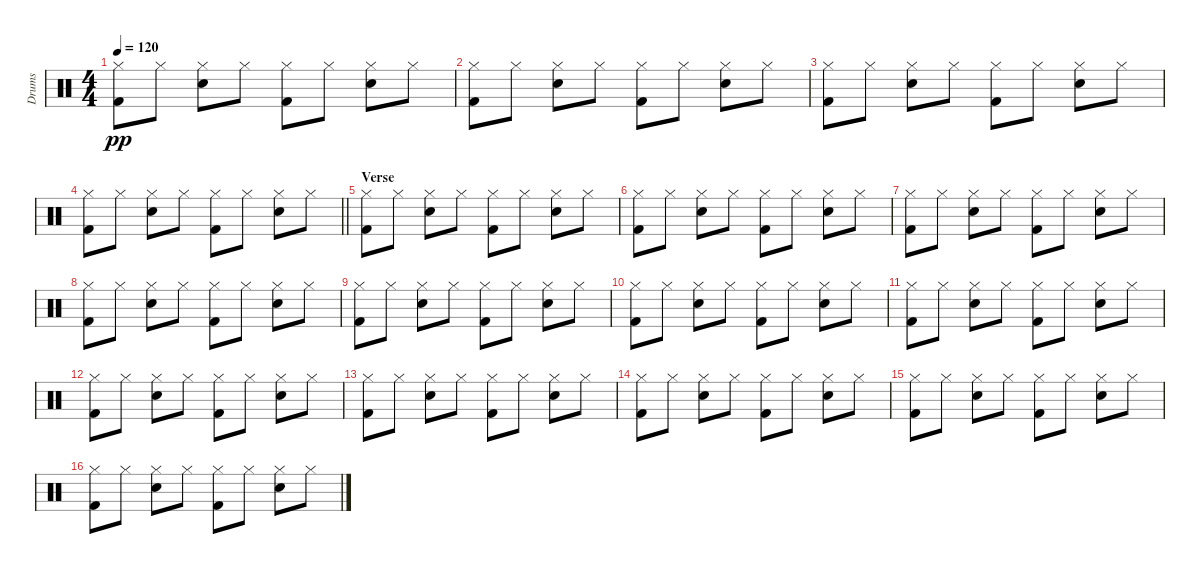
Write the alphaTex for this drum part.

\track ("Drums" "Drums") {instrument percussion}
\staff {score}
\articulation defaults
\ts (4 4)
\tempo 120
\clef neutral
\ks c
("Hi-Hat (closed)" "Kick (hit) 2").8{dy pp} "Hi-Hat (closed)".8 ("Hi-Hat (closed)" "Electric Snare (hit)").8 "Hi-Hat (closed)".8 ("Hi-Hat (closed)" "Kick (hit) 2").8 "Hi-Hat (closed)".8 ("Hi-Hat (closed)" "Electric Snare (hit)").8 "Hi-Hat (closed)".8 |
("Hi-Hat (closed)" "Kick (hit) 2").8 "Hi-Hat (closed)".8 ("Hi-Hat (closed)" "Electric Snare (hit)").8 "Hi-Hat (closed)".8 ("Hi-Hat (closed)" "Kick (hit) 2").8 "Hi-Hat (closed)".8 ("Hi-Hat (closed)" "Electric Snare (hit)").8 "Hi-Hat (closed)".8 |
("Hi-Hat (closed)" "Kick (hit) 2").8 "Hi-Hat (closed)".8 ("Hi-Hat (closed)" "Electric Snare (hit)").8 "Hi-Hat (closed)".8 ("Hi-Hat (closed)" "Kick (hit) 2").8 "Hi-Hat (closed)".8 ("Hi-Hat (closed)" "Electric Snare (hit)").8 "Hi-Hat (closed)".8 |
\barLineRight lightlight
("Hi-Hat (closed)" "Kick (hit) 2").8 "Hi-Hat (closed)".8 ("Hi-Hat (closed)" "Electric Snare (hit)").8 "Hi-Hat (closed)".8 ("Hi-Hat (closed)" "Kick (hit) 2").8 "Hi-Hat (closed)".8 ("Hi-Hat (closed)" "Electric Snare (hit)").8 "Hi-Hat (closed)".8 |
\section ("" "Verse")
("Hi-Hat (closed)" "Kick (hit) 2").8 "Hi-Hat (closed)".8 ("Hi-Hat (closed)" "Electric Snare (hit)").8 "Hi-Hat (closed)".8 ("Hi-Hat (closed)" "Kick (hit) 2").8 "Hi-Hat (closed)".8 ("Hi-Hat (closed)" "Electric Snare (hit)").8 "Hi-Hat (closed)".8 |
("Hi-Hat (closed)" "Kick (hit) 2").8 "Hi-Hat (closed)".8 ("Hi-Hat (closed)" "Electric Snare (hit)").8 "Hi-Hat (closed)".8 ("Hi-Hat (closed)" "Kick (hit) 2").8 "Hi-Hat (closed)".8 ("Hi-Hat (closed)" "Electric Snare (hit)").8 "Hi-Hat (closed)".8 |
("Hi-Hat (closed)" "Kick (hit) 2").8 "Hi-Hat (closed)".8 ("Hi-Hat (closed)" "Electric Snare (hit)").8 "Hi-Hat (closed)".8 ("Hi-Hat (closed)" "Kick (hit) 2").8 "Hi-Hat (closed)".8 ("Hi-Hat (closed)" "Electric Snare (hit)").8 "Hi-Hat (closed)".8 |
("Hi-Hat (closed)" "Kick (hit) 2").8 "Hi-Hat (closed)".8 ("Hi-Hat (closed)" "Electric Snare (hit)").8 "Hi-Hat (closed)".8 ("Hi-Hat (closed)" "Kick (hit) 2").8 "Hi-Hat (closed)".8 ("Hi-Hat (closed)" "Electric Snare (hit)").8 "Hi-Hat (closed)".8 |
("Hi-Hat (closed)" "Kick (hit) 2").8 "Hi-Hat (closed)".8 ("Hi-Hat (closed)" "Electric Snare (hit)").8 "Hi-Hat (closed)".8 ("Hi-Hat (closed)" "Kick (hit) 2").8 "Hi-Hat (closed)".8 ("Hi-Hat (closed)" "Electric Snare (hit)").8 "Hi-Hat (closed)".8 |
("Hi-Hat (closed)" "Kick (hit) 2").8 "Hi-Hat (closed)".8 ("Hi-Hat (closed)" "Electric Snare (hit)").8 "Hi-Hat (closed)".8 ("Hi-Hat (closed)" "Kick (hit) 2").8 "Hi-Hat (closed)".8 ("Hi-Hat (closed)" "Electric Snare (hit)").8 "Hi-Hat (closed)".8 |
("Hi-Hat (closed)" "Kick (hit) 2").8 "Hi-Hat (closed)".8 ("Hi-Hat (closed)" "Electric Snare (hit)").8 "Hi-Hat (closed)".8 ("Hi-Hat (closed)" "Kick (hit) 2").8 "Hi-Hat (closed)".8 ("Hi-Hat (closed)" "Electric Snare (hit)").8 "Hi-Hat (closed)".8 |
("Hi-Hat (closed)" "Kick (hit) 2").8 "Hi-Hat (closed)".8 ("Hi-Hat (closed)" "Electric Snare (hit)").8 "Hi-Hat (closed)".8 ("Hi-Hat (closed)" "Kick (hit) 2").8 "Hi-Hat (closed)".8 ("Hi-Hat (closed)" "Electric Snare (hit)").8 "Hi-Hat (closed)".8 |
("Hi-Hat (closed)" "Kick (hit) 2").8 "Hi-Hat (closed)".8 ("Hi-Hat (closed)" "Electric Snare (hit)").8 "Hi-Hat (closed)".8 ("Hi-Hat (closed)" "Kick (hit) 2").8 "Hi-Hat (closed)".8 ("Hi-Hat (closed)" "Electric Snare (hit)").8 "Hi-Hat (closed)".8 |
("Hi-Hat (closed)" "Kick (hit) 2").8 "Hi-Hat (closed)".8 ("Hi-Hat (closed)" "Electric Snare (hit)").8 "Hi-Hat (closed)".8 ("Hi-Hat (closed)" "Kick (hit) 2").8 "Hi-Hat (closed)".8 ("Hi-Hat (closed)" "Electric Snare (hit)").8 "Hi-Hat (closed)".8 |
("Hi-Hat (closed)" "Kick (hit) 2").8 "Hi-Hat (closed)".8 ("Hi-Hat (closed)" "Electric Snare (hit)").8 "Hi-Hat (closed)".8 ("Hi-Hat (closed)" "Kick (hit) 2").8 "Hi-Hat (closed)".8 ("Hi-Hat (closed)" "Electric Snare (hit)").8 "Hi-Hat (closed)".8 |
("Hi-Hat (closed)" "Kick (hit) 2").8 "Hi-Hat (closed)".8 ("Hi-Hat (closed)" "Electric Snare (hit)").8 "Hi-Hat (closed)".8 ("Hi-Hat (closed)" "Kick (hit) 2").8 "Hi-Hat (closed)".8 ("Hi-Hat (closed)" "Electric Snare (hit)").8 "Hi-Hat (closed)".8
